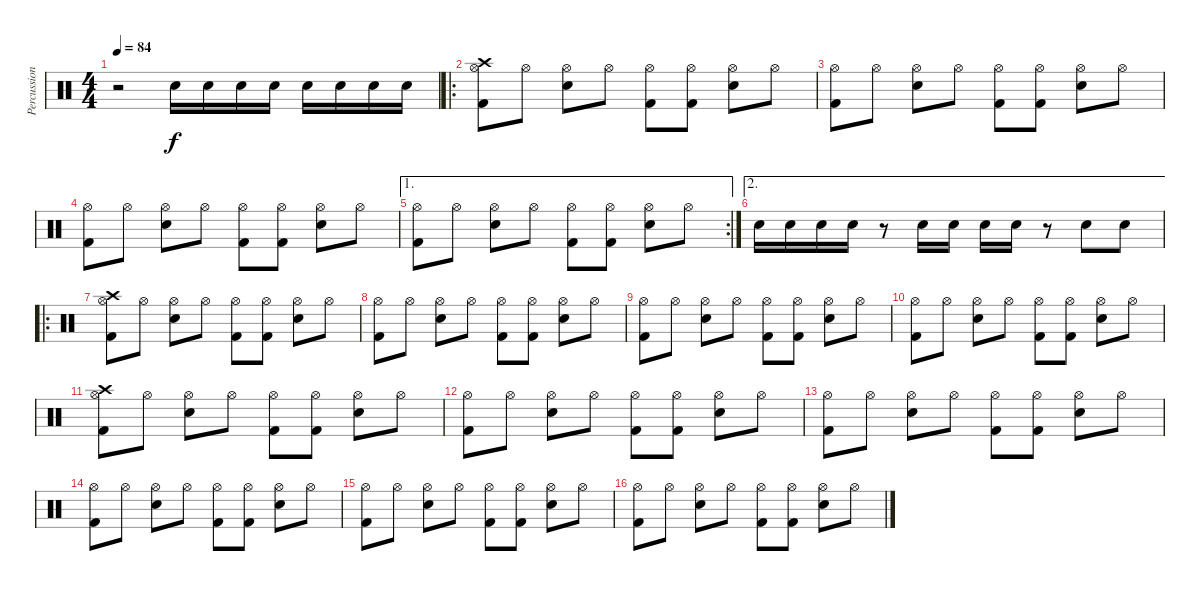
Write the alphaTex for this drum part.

\track ("Percussion" "Percussion") {instrument percussion}
\staff {score}
\articulation defaults
\ts (4 4)
\tempo 84
\clef neutral
\ks c
r.2{dy f} "Electric Snare (hit)".16 "Electric Snare (hit)".16 "Electric Snare (hit)".16 "Electric Snare (hit)".16 "Electric Snare (hit)".16 "Electric Snare (hit)".16 "Electric Snare (hit)".16 "Electric Snare (hit)".16 |
\ro
("Crash high (hit)" "Kick (hit) 2" "Hi-Hat (open)").8 "Hi-Hat (open)".8 ("Electric Snare (hit)" "Hi-Hat (open)").8 "Hi-Hat (open)".8 ("Kick (hit) 2" "Hi-Hat (open)").8 ("Kick (hit) 2" "Hi-Hat (open)").8 ("Electric Snare (hit)" "Hi-Hat (open)").8 "Hi-Hat (open)".8 |
("Kick (hit) 2" "Hi-Hat (open)").8 "Hi-Hat (open)".8 ("Electric Snare (hit)" "Hi-Hat (open)").8 "Hi-Hat (open)".8 ("Kick (hit) 2" "Hi-Hat (open)").8 ("Kick (hit) 2" "Hi-Hat (open)").8 ("Electric Snare (hit)" "Hi-Hat (open)").8 "Hi-Hat (open)".8 |
("Kick (hit) 2" "Hi-Hat (open)").8 "Hi-Hat (open)".8 ("Electric Snare (hit)" "Hi-Hat (open)").8 "Hi-Hat (open)".8 ("Kick (hit) 2" "Hi-Hat (open)").8 ("Kick (hit) 2" "Hi-Hat (open)").8 ("Electric Snare (hit)" "Hi-Hat (open)").8 "Hi-Hat (open)".8 |
\ae 1
\rc 2
("Kick (hit) 2" "Hi-Hat (open)").8 "Hi-Hat (open)".8 ("Electric Snare (hit)" "Hi-Hat (open)").8 "Hi-Hat (open)".8 ("Kick (hit) 2" "Hi-Hat (open)").8 ("Kick (hit) 2" "Hi-Hat (open)").8 ("Electric Snare (hit)" "Hi-Hat (open)").8 "Hi-Hat (open)".8 |
\ae 2 "Electric Snare (hit)".16 "Electric Snare (hit)".16 "Electric Snare (hit)".16 "Electric Snare (hit)".16
r.8 "Electric Snare (hit)".16 "Electric Snare (hit)".16 "Electric Snare (hit)".16 "Electric Snare (hit)".16 r.8 "Electric Snare (hit)".8 "Electric Snare (hit)".8 |
\ro
("Crash high (hit)" "Kick (hit) 2" "Hi-Hat (open)").8 "Hi-Hat (open)".8 ("Electric Snare (hit)" "Hi-Hat (open)").8 "Hi-Hat (open)".8 ("Kick (hit) 2" "Hi-Hat (open)").8 ("Kick (hit) 2" "Hi-Hat (open)").8 ("Electric Snare (hit)" "Hi-Hat (open)").8 "Hi-Hat (open)".8 |
("Kick (hit) 2" "Hi-Hat (open)").8 "Hi-Hat (open)".8 ("Electric Snare (hit)" "Hi-Hat (open)").8 "Hi-Hat (open)".8 ("Kick (hit) 2" "Hi-Hat (open)").8 ("Kick (hit) 2" "Hi-Hat (open)").8 ("Electric Snare (hit)" "Hi-Hat (open)").8 "Hi-Hat (open)".8 |
("Kick (hit) 2" "Hi-Hat (open)").8 "Hi-Hat (open)".8 ("Electric Snare (hit)" "Hi-Hat (open)").8 "Hi-Hat (open)".8 ("Kick (hit) 2" "Hi-Hat (open)").8 ("Kick (hit) 2" "Hi-Hat (open)").8 ("Electric Snare (hit)" "Hi-Hat (open)").8 "Hi-Hat (open)".8 |
("Kick (hit) 2" "Hi-Hat (open)").8 "Hi-Hat (open)".8 ("Electric Snare (hit)" "Hi-Hat (open)").8 "Hi-Hat (open)".8 ("Kick (hit) 2" "Hi-Hat (open)").8 ("Kick (hit) 2" "Hi-Hat (open)").8 ("Electric Snare (hit)" "Hi-Hat (open)").8 "Hi-Hat (open)".8 |
("Crash high (hit)" "Kick (hit) 2" "Hi-Hat (open)").8 "Hi-Hat (open)".8 ("Electric Snare (hit)" "Hi-Hat (open)").8 "Hi-Hat (open)".8 ("Kick (hit) 2" "Hi-Hat (open)").8 ("Kick (hit) 2" "Hi-Hat (open)").8 ("Electric Snare (hit)" "Hi-Hat (open)").8 "Hi-Hat (open)".8 |
("Kick (hit) 2" "Hi-Hat (open)").8 "Hi-Hat (open)".8 ("Electric Snare (hit)" "Hi-Hat (open)").8 "Hi-Hat (open)".8 ("Kick (hit) 2" "Hi-Hat (open)").8 ("Kick (hit) 2" "Hi-Hat (open)").8 ("Electric Snare (hit)" "Hi-Hat (open)").8 "Hi-Hat (open)".8 |
("Kick (hit) 2" "Hi-Hat (open)").8 "Hi-Hat (open)".8 ("Electric Snare (hit)" "Hi-Hat (open)").8 "Hi-Hat (open)".8 ("Kick (hit) 2" "Hi-Hat (open)").8 ("Kick (hit) 2" "Hi-Hat (open)").8 ("Electric Snare (hit)" "Hi-Hat (open)").8 "Hi-Hat (open)".8 |
("Kick (hit) 2" "Hi-Hat (open)").8 "Hi-Hat (open)".8 ("Electric Snare (hit)" "Hi-Hat (open)").8 "Hi-Hat (open)".8 ("Kick (hit) 2" "Hi-Hat (open)").8 ("Kick (hit) 2" "Hi-Hat (open)").8 ("Electric Snare (hit)" "Hi-Hat (open)").8 "Hi-Hat (open)".8 |
("Kick (hit) 2" "Hi-Hat (open)").8 "Hi-Hat (open)".8 ("Electric Snare (hit)" "Hi-Hat (open)").8 "Hi-Hat (open)".8 ("Kick (hit) 2" "Hi-Hat (open)").8 ("Kick (hit) 2" "Hi-Hat (open)").8 ("Electric Snare (hit)" "Hi-Hat (open)").8 "Hi-Hat (open)".8 |
("Kick (hit) 2" "Hi-Hat (open)").8 "Hi-Hat (open)".8 ("Electric Snare (hit)" "Hi-Hat (open)").8 "Hi-Hat (open)".8 ("Kick (hit) 2" "Hi-Hat (open)").8 ("Kick (hit) 2" "Hi-Hat (open)").8 ("Electric Snare (hit)" "Hi-Hat (open)").8 "Hi-Hat (open)".8
